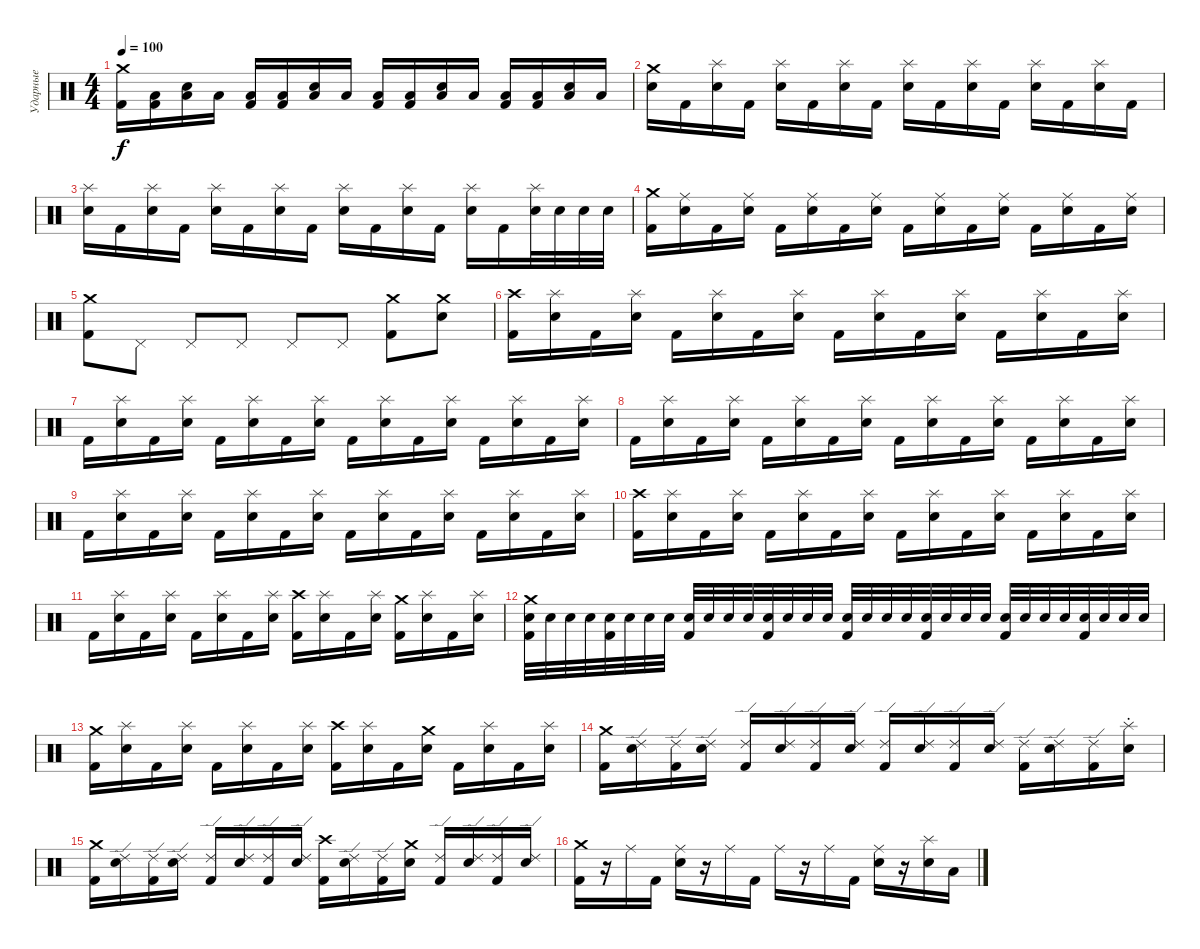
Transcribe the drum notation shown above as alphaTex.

\track ("Ударные" "Ударные") {instrument percussion}
\staff {score}
\articulation defaults
\ts (4 4)
\tempo 100
\clef neutral
\ks c
("Crash medium (hit)" "Kick (hit) 2").16{dy f} ("Low Floor Tom (hit)" "Kick (hit) 2").16 ("Low Floor Tom (hit)" "Electric Snare (hit)").16 "Low Floor Tom (hit)".16 ("Low Floor Tom (hit)" "Kick (hit) 2").16 ("Low Floor Tom (hit)" "Kick (hit) 2").16 ("Low Floor Tom (hit)" "Electric Snare (hit)").16 "Low Floor Tom (hit)".16 ("Low Floor Tom (hit)" "Kick (hit) 2").16 ("Low Floor Tom (hit)" "Kick (hit) 2").16 ("Low Floor Tom (hit)" "Electric Snare (hit)").16 "Low Floor Tom (hit)".16 ("Low Floor Tom (hit)" "Kick (hit) 2").16 ("Low Floor Tom (hit)" "Kick (hit) 2").16 ("Low Floor Tom (hit)" "Electric Snare (hit)").16 "Low Floor Tom (hit)".16 |
("Crash medium (hit)" "Electric Snare (hit)").16 "Kick (hit) 2".16 ("Splash (hit)" "Electric Snare (hit)").16 "Kick (hit) 2".16 ("Splash (hit)" "Electric Snare (hit)").16 "Kick (hit) 2".16 ("Splash (hit)" "Electric Snare (hit)").16 "Kick (hit) 2".16 ("Splash (hit)" "Electric Snare (hit)").16 "Kick (hit) 2".16 ("Splash (hit)" "Electric Snare (hit)").16 "Kick (hit) 2".16 ("Splash (hit)" "Electric Snare (hit)").16 "Kick (hit) 2".16 ("Splash (hit)" "Electric Snare (hit)").16 "Kick (hit) 2".16 |
("Splash (hit)" "Electric Snare (hit)").16 "Kick (hit) 2".16 ("Splash (hit)" "Electric Snare (hit)").16 "Kick (hit) 2".16 ("Splash (hit)" "Electric Snare (hit)").16 "Kick (hit) 2".16 ("Splash (hit)" "Electric Snare (hit)").16 "Kick (hit) 2".16 ("Splash (hit)" "Electric Snare (hit)").16 "Kick (hit) 2".16 ("Splash (hit)" "Electric Snare (hit)").16 "Kick (hit) 2".16 ("Splash (hit)" "Electric Snare (hit)").16 "Kick (hit) 2".16 ("Splash (hit)" "Electric Snare (hit)").32 "Electric Snare (hit)".32 "Electric Snare (hit)".32 "Electric Snare (hit)".32 |
("Crash medium (hit)" "Kick (hit) 2").16 ("Ride (middle)" "Electric Snare (hit)").16 "Kick (hit) 2".16 ("Ride (middle)" "Electric Snare (hit)").16 "Kick (hit) 2".16 ("Ride (middle)" "Electric Snare (hit)").16 "Kick (hit) 2".16 ("Ride (middle)" "Electric Snare (hit)").16 "Kick (hit) 2".16 ("Ride (middle)" "Electric Snare (hit)").16 "Kick (hit) 2".16 ("Ride (middle)" "Electric Snare (hit)").16 "Kick (hit) 2".16 ("Ride (middle)" "Electric Snare (hit)").16 "Kick (hit) 2".16 ("Ride (middle)" "Electric Snare (hit)").16 |
("Crash medium (hit)" "Kick (hit) 2").8 "Pedal Hi-Hat (hit)".8 "Pedal Hi-Hat (hit)".8 "Pedal Hi-Hat (hit)".8 "Pedal Hi-Hat (hit)".8 "Pedal Hi-Hat (hit)".8 ("Crash medium (hit)" "Kick (hit) 2").8 ("Crash medium (hit)" "Electric Snare (hit)").8 |
("Crash high (hit)" "Kick (hit) 2").16 ("Splash (hit)" "Electric Snare (hit)").16 "Kick (hit) 2".16 ("Splash (hit)" "Electric Snare (hit)").16 "Kick (hit) 2".16 ("Splash (hit)" "Electric Snare (hit)").16 "Kick (hit) 2".16 ("Splash (hit)" "Electric Snare (hit)").16 "Kick (hit) 2".16 ("Splash (hit)" "Electric Snare (hit)").16 "Kick (hit) 2".16 ("Splash (hit)" "Electric Snare (hit)").16 "Kick (hit) 2".16 ("Splash (hit)" "Electric Snare (hit)").16 "Kick (hit) 2".16 ("Splash (hit)" "Electric Snare (hit)").16 |
"Kick (hit) 2".16 ("Splash (hit)" "Electric Snare (hit)").16 "Kick (hit) 2".16 ("Splash (hit)" "Electric Snare (hit)").16 "Kick (hit) 2".16 ("Splash (hit)" "Electric Snare (hit)").16 "Kick (hit) 2".16 ("Splash (hit)" "Electric Snare (hit)").16 "Kick (hit) 2".16 ("Splash (hit)" "Electric Snare (hit)").16 "Kick (hit) 2".16 ("Splash (hit)" "Electric Snare (hit)").16 "Kick (hit) 2".16 ("Splash (hit)" "Electric Snare (hit)").16 "Kick (hit) 2".16 ("Splash (hit)" "Electric Snare (hit)").16 |
"Kick (hit) 2".16 ("Splash (hit)" "Electric Snare (hit)").16 "Kick (hit) 2".16 ("Splash (hit)" "Electric Snare (hit)").16 "Kick (hit) 2".16 ("Splash (hit)" "Electric Snare (hit)").16 "Kick (hit) 2".16 ("Splash (hit)" "Electric Snare (hit)").16 "Kick (hit) 2".16 ("Splash (hit)" "Electric Snare (hit)").16 "Kick (hit) 2".16 ("Splash (hit)" "Electric Snare (hit)").16 "Kick (hit) 2".16 ("Splash (hit)" "Electric Snare (hit)").16 "Kick (hit) 2".16 ("Splash (hit)" "Electric Snare (hit)").16 |
"Kick (hit) 2".16 ("Splash (hit)" "Electric Snare (hit)").16 "Kick (hit) 2".16 ("Splash (hit)" "Electric Snare (hit)").16 "Kick (hit) 2".16 ("Splash (hit)" "Electric Snare (hit)").16 "Kick (hit) 2".16 ("Splash (hit)" "Electric Snare (hit)").16 "Kick (hit) 2".16 ("Splash (hit)" "Electric Snare (hit)").16 "Kick (hit) 2".16 ("Splash (hit)" "Electric Snare (hit)").16 "Kick (hit) 2".16 ("Splash (hit)" "Electric Snare (hit)").16 "Kick (hit) 2".16 ("Splash (hit)" "Electric Snare (hit)").16 |
("Crash high (hit)" "Kick (hit) 2").16 ("Splash (hit)" "Electric Snare (hit)").16 "Kick (hit) 2".16 ("Splash (hit)" "Electric Snare (hit)").16 "Kick (hit) 2".16 ("Splash (hit)" "Electric Snare (hit)").16 "Kick (hit) 2".16 ("Splash (hit)" "Electric Snare (hit)").16 "Kick (hit) 2".16 ("Splash (hit)" "Electric Snare (hit)").16 "Kick (hit) 2".16 ("Splash (hit)" "Electric Snare (hit)").16 "Kick (hit) 2".16 ("Splash (hit)" "Electric Snare (hit)").16 "Kick (hit) 2".16 ("Splash (hit)" "Electric Snare (hit)").16 |
"Kick (hit) 2".16 ("Splash (hit)" "Electric Snare (hit)").16 "Kick (hit) 2".16 ("Splash (hit)" "Electric Snare (hit)").16 "Kick (hit) 2".16 ("Splash (hit)" "Electric Snare (hit)").16 "Kick (hit) 2".16 ("Splash (hit)" "Electric Snare (hit)").16 ("Crash high (hit)" "Kick (hit) 2").16 ("Splash (hit)" "Electric Snare (hit)").16 "Kick (hit) 2".16 ("Splash (hit)" "Electric Snare (hit)").16 ("Crash medium (hit)" "Kick (hit) 2").16 ("Splash (hit)" "Electric Snare (hit)").16 "Kick (hit) 2".16 ("Splash (hit)" "Electric Snare (hit)").16 |
("Crash medium (hit)" "Electric Snare (hit)" "Kick (hit) 2").32 "Electric Snare (hit)".32 "Electric Snare (hit)".32 "Electric Snare (hit)".32 ("Electric Snare (hit)" "Kick (hit) 2").32 "Electric Snare (hit)".32 "Electric Snare (hit)".32 "Electric Snare (hit)".32 ("Electric Snare (hit)" "Kick (hit) 2").32 "Electric Snare (hit)".32 "Electric Snare (hit)".32 "Electric Snare (hit)".32 ("Electric Snare (hit)" "Kick (hit) 2").32 "Electric Snare (hit)".32 "Electric Snare (hit)".32 "Electric Snare (hit)".32 ("Electric Snare (hit)" "Kick (hit) 2").32 "Electric Snare (hit)".32 "Electric Snare (hit)".32 "Electric Snare (hit)".32 ("Electric Snare (hit)" "Kick (hit) 2").32 "Electric Snare (hit)".32 "Electric Snare (hit)".32 "Electric Snare (hit)".32 ("Electric Snare (hit)" "Kick (hit) 2").32 "Electric Snare (hit)".32 "Electric Snare (hit)".32 "Electric Snare (hit)".32 ("Electric Snare (hit)" "Kick (hit) 2").32 "Electric Snare (hit)".32 "Electric Snare (hit)".32 "Electric Snare (hit)".32 |
("Crash medium (hit)" "Kick (hit) 2").16 ("Splash (hit)" "Electric Snare (hit)").16 "Kick (hit) 2".16 ("Splash (hit)" "Electric Snare (hit)").16 "Kick (hit) 2".16 ("Splash (hit)" "Electric Snare (hit)").16 "Kick (hit) 2".16 ("Splash (hit)" "Electric Snare (hit)").16 ("Crash high (hit)" "Kick (hit) 2").16 ("Splash (hit)" "Electric Snare (hit)").16 "Kick (hit) 2".16 ("Crash medium (hit)" "Electric Snare (hit)").16 "Kick (hit) 2".16 ("Splash (hit)" "Electric Snare (hit)").16 "Kick (hit) 2".16 ("Splash (hit)" "Electric Snare (hit)").16 |
("Crash medium (hit)" "Kick (hit) 2").16 ("Ride (edge) 2" "Electric Snare (hit)").16 ("Ride (edge) 2" "Kick (hit) 2").16 ("Ride (edge) 2" "Electric Snare (hit)").16 ("Ride (edge) 2" "Kick (hit) 2").16 ("Ride (edge) 2" "Electric Snare (hit)").16 ("Ride (edge) 2" "Kick (hit) 2").16 ("Ride (edge) 2" "Electric Snare (hit)").16 ("Ride (edge) 2" "Kick (hit) 2").16 ("Ride (edge) 2" "Electric Snare (hit)").16 ("Ride (edge) 2" "Kick (hit) 2").16 ("Ride (edge) 2" "Electric Snare (hit)").16 ("Ride (edge) 2" "Kick (hit) 2").16 ("Ride (edge) 2" "Electric Snare (hit)").16 ("Ride (edge) 2" "Kick (hit) 2").16 ("Splash (choke)" "Electric Snare (hit)").16 |
("Crash medium (hit)" "Kick (hit) 2").16 ("Ride (edge) 2" "Electric Snare (hit)").16 ("Ride (edge) 2" "Kick (hit) 2").16 ("Ride (edge) 2" "Electric Snare (hit)").16 ("Ride (edge) 2" "Kick (hit) 2").16 ("Ride (edge) 2" "Electric Snare (hit)").16 ("Ride (edge) 2" "Kick (hit) 2").16 ("Ride (edge) 2" "Electric Snare (hit)").16 ("Crash high (hit)" "Kick (hit) 2").16 ("Ride (edge) 2" "Electric Snare (hit)").16 ("Ride (edge) 2" "Kick (hit) 2").16 ("Crash medium (hit)" "Electric Snare (hit)").16 ("Ride (edge) 2" "Kick (hit) 2").16 ("Ride (edge) 2" "Electric Snare (hit)").16 ("Ride (edge) 2" "Kick (hit) 2").16 ("Ride (edge) 2" "Electric Snare (hit)").16 |
("Crash medium (hit)" "Kick (hit) 2").16 r.16 "Ride (middle)".16 "Kick (hit) 2".16 ("Ride (middle)" "Electric Snare (hit)").16 r.16 "Ride (middle)".16 "Kick (hit) 2".16 "Ride (middle)".16 r.16 "Ride (middle)".16 "Kick (hit) 2".16 ("Ride (middle)" "Electric Snare (hit)").16 r.16 ("Splash (hit)" "Electric Snare (hit)").16 "Low Tom (hit)".16
